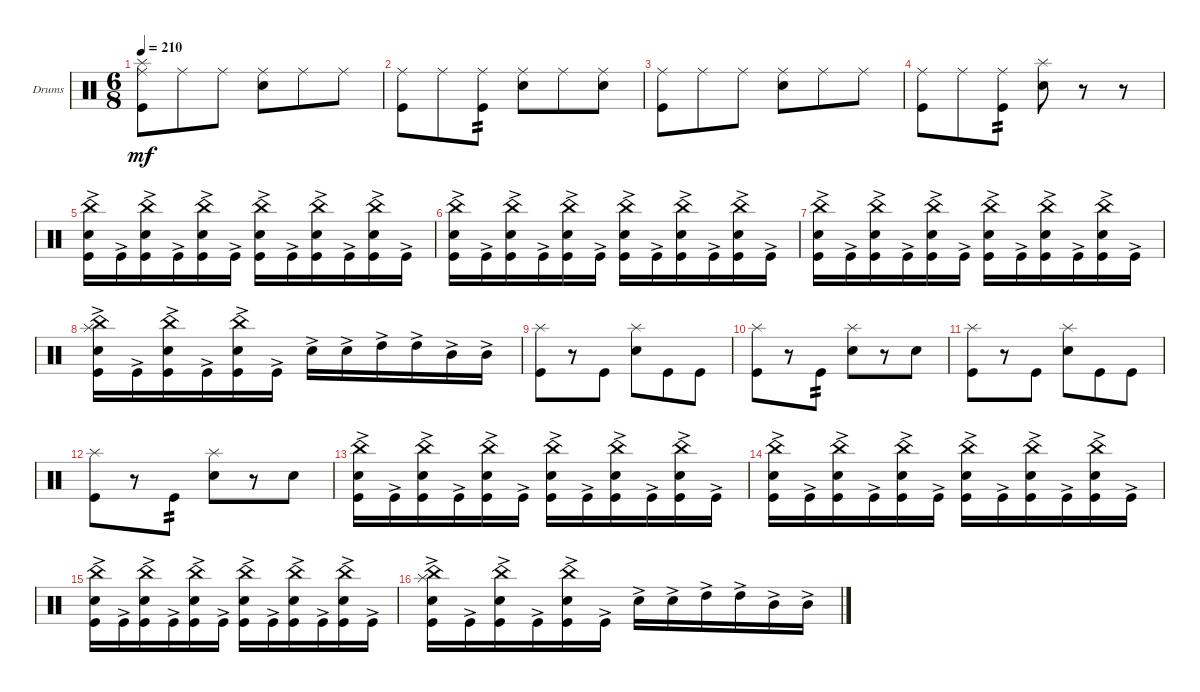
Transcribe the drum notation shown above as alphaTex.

\bracketExtendMode groupsimilarinstruments
\firstSystemTrackNameOrientation horizontal
\otherSystemsTrackNameOrientation horizontal
\track ("Drumkit" "Drums") {instrument percussion}
\staff {score}
\articulation defaults
\ts (6 8)
\tempo 210
\clef neutral
\ks c
("Kick (hit)" "Ride (middle)" "Splash (hit)").8{dy mf} "Ride (middle)".8 "Ride (middle)".8 ("Snare (hit) 2" "Ride (middle)").8 "Ride (middle)".8 "Ride (middle)".8 |
("Kick (hit)" "Ride (middle)").8 "Ride (middle)".8 ("Kick (hit)" "Ride (middle)").8{tp 2} ("Snare (hit) 2" "Ride (middle)").8 "Ride (middle)".8 ("Snare (hit) 2" "Ride (middle)").8 |
("Kick (hit)" "Ride (middle)").8 "Ride (middle)".8 "Ride (middle)".8 ("Snare (hit) 2" "Ride (middle)").8 "Ride (middle)".8 "Ride (middle)".8 |
("Ride (middle)" "Kick (hit)").8 "Ride (middle)".8 ("Kick (hit)" "Ride (middle)").8{tp 2} ("Snare (hit) 2" "Splash (hit)").8 r.8 r.8 |
("Kick (hit)"{ac} "Snare (hit) 2"{ac} "China (hit)"{ac}).16 "Kick (hit)"{ac}.16 ("Kick (hit)"{ac} "Snare (hit) 2"{ac} "China (hit)"{ac}).16 "Kick (hit)"{ac}.16 ("Kick (hit)"{ac} "Snare (hit) 2"{ac} "China (hit)"{ac}).16 "Kick (hit)"{ac}.16 ("Kick (hit)"{ac} "Snare (hit) 2"{ac} "China (hit)"{ac}).16 "Kick (hit)"{ac}.16 ("Kick (hit)"{ac} "Snare (hit) 2"{ac} "China (hit)"{ac}).16 "Kick (hit)"{ac}.16 ("Kick (hit)"{ac} "Snare (hit) 2"{ac} "China (hit)"{ac}).16 "Kick (hit)"{ac}.16 |
("Kick (hit)"{ac} "Snare (hit) 2"{ac} "China (hit)"{ac}).16 "Kick (hit)"{ac}.16 ("Kick (hit)"{ac} "Snare (hit) 2"{ac} "China (hit)"{ac}).16 "Kick (hit)"{ac}.16 ("Kick (hit)"{ac} "Snare (hit) 2"{ac} "China (hit)"{ac}).16 "Kick (hit)"{ac}.16 ("Kick (hit)"{ac} "Snare (hit) 2"{ac} "China (hit)"{ac}).16 "Kick (hit)"{ac}.16 ("Kick (hit)"{ac} "Snare (hit) 2"{ac} "China (hit)"{ac}).16 "Kick (hit)"{ac}.16 ("Kick (hit)"{ac} "Snare (hit) 2"{ac} "China (hit)"{ac}).16 "Kick (hit)"{ac}.16 |
("Kick (hit)"{ac} "Snare (hit) 2"{ac} "China (hit)"{ac}).16 "Kick (hit)"{ac}.16 ("Kick (hit)"{ac} "Snare (hit) 2"{ac} "China (hit)"{ac}).16 "Kick (hit)"{ac}.16 ("Kick (hit)"{ac} "Snare (hit) 2"{ac} "China (hit)"{ac}).16 "Kick (hit)"{ac}.16 ("Kick (hit)"{ac} "Snare (hit) 2"{ac} "China (hit)"{ac}).16 "Kick (hit)"{ac}.16 ("Kick (hit)"{ac} "Snare (hit) 2"{ac} "China (hit)"{ac}).16 "Kick (hit)"{ac}.16 ("Kick (hit)"{ac} "Snare (hit) 2"{ac} "China (hit)"{ac}).16 "Kick (hit)"{ac}.16 |
("Kick (hit)"{ac} "Snare (hit) 2"{ac} "China (hit)"{ac} "Splash (hit)").16 "Kick (hit)"{ac}.16 ("Kick (hit)"{ac} "Snare (hit) 2"{ac} "China (hit)"{ac}).16 "Kick (hit)"{ac}.16 ("Kick (hit)"{ac} "Snare (hit) 2"{ac} "China (hit)"{ac}).16 "Kick (hit)"{ac}.16 "Snare (hit) 2"{ac}.16 "Snare (hit) 2"{ac}.16 "High Tom (hit)"{ac}.16 "High Tom (hit)"{ac}.16 "Mid Tom (hit)"{ac}.16 "Mid Tom (hit)"{ac}.16 |
("Kick (hit)" "Splash (hit)").8 r.8 "Kick (hit)".8 ("Snare (hit) 2" "Splash (hit)").8 "Kick (hit)".8 "Kick (hit)".8 |
("Kick (hit)" "Splash (hit)").8 r.8 "Kick (hit)".8{tp 2} ("Snare (hit) 2" "Splash (hit)").8 r.8 "Snare (hit) 2".8 |
("Kick (hit)" "Splash (hit)").8 r.8 "Kick (hit)".8 ("Snare (hit) 2" "Splash (hit)").8 "Kick (hit)".8 "Kick (hit)".8 |
("Kick (hit)" "Splash (hit)").8 r.8 "Kick (hit)".8{tp 2} ("Snare (hit) 2" "Splash (hit)").8 r.8 "Snare (hit) 2".8 |
("Kick (hit)"{ac} "Snare (hit) 2"{ac} "China (hit)"{ac}).16 "Kick (hit)"{ac}.16 ("Kick (hit)"{ac} "Snare (hit) 2"{ac} "China (hit)"{ac}).16 "Kick (hit)"{ac}.16 ("Kick (hit)"{ac} "Snare (hit) 2"{ac} "China (hit)"{ac}).16 "Kick (hit)"{ac}.16 ("Kick (hit)"{ac} "Snare (hit) 2"{ac} "China (hit)"{ac}).16 "Kick (hit)"{ac}.16 ("Kick (hit)"{ac} "Snare (hit) 2"{ac} "China (hit)"{ac}).16 "Kick (hit)"{ac}.16 ("Kick (hit)"{ac} "Snare (hit) 2"{ac} "China (hit)"{ac}).16 "Kick (hit)"{ac}.16 |
("Kick (hit)"{ac} "Snare (hit) 2"{ac} "China (hit)"{ac}).16 "Kick (hit)"{ac}.16 ("Kick (hit)"{ac} "Snare (hit) 2"{ac} "China (hit)"{ac}).16 "Kick (hit)"{ac}.16 ("Kick (hit)"{ac} "Snare (hit) 2"{ac} "China (hit)"{ac}).16 "Kick (hit)"{ac}.16 ("Kick (hit)"{ac} "Snare (hit) 2"{ac} "China (hit)"{ac}).16 "Kick (hit)"{ac}.16 ("Kick (hit)"{ac} "Snare (hit) 2"{ac} "China (hit)"{ac}).16 "Kick (hit)"{ac}.16 ("Kick (hit)"{ac} "Snare (hit) 2"{ac} "China (hit)"{ac}).16 "Kick (hit)"{ac}.16 |
("Kick (hit)"{ac} "Snare (hit) 2"{ac} "China (hit)"{ac}).16 "Kick (hit)"{ac}.16 ("Kick (hit)"{ac} "Snare (hit) 2"{ac} "China (hit)"{ac}).16 "Kick (hit)"{ac}.16 ("Kick (hit)"{ac} "Snare (hit) 2"{ac} "China (hit)"{ac}).16 "Kick (hit)"{ac}.16 ("Kick (hit)"{ac} "Snare (hit) 2"{ac} "China (hit)"{ac}).16 "Kick (hit)"{ac}.16 ("Kick (hit)"{ac} "Snare (hit) 2"{ac} "China (hit)"{ac}).16 "Kick (hit)"{ac}.16 ("Kick (hit)"{ac} "Snare (hit) 2"{ac} "China (hit)"{ac}).16 "Kick (hit)"{ac}.16 |
("Kick (hit)"{ac} "Snare (hit) 2"{ac} "China (hit)"{ac} "Splash (hit)").16 "Kick (hit)"{ac}.16 ("Kick (hit)"{ac} "Snare (hit) 2"{ac} "China (hit)"{ac}).16 "Kick (hit)"{ac}.16 ("Kick (hit)"{ac} "Snare (hit) 2"{ac} "China (hit)"{ac}).16 "Kick (hit)"{ac}.16 "Snare (hit) 2"{ac}.16 "Snare (hit) 2"{ac}.16 "High Tom (hit)"{ac}.16 "High Tom (hit)"{ac}.16 "Mid Tom (hit)"{ac}.16 "Mid Tom (hit)"{ac}.16
